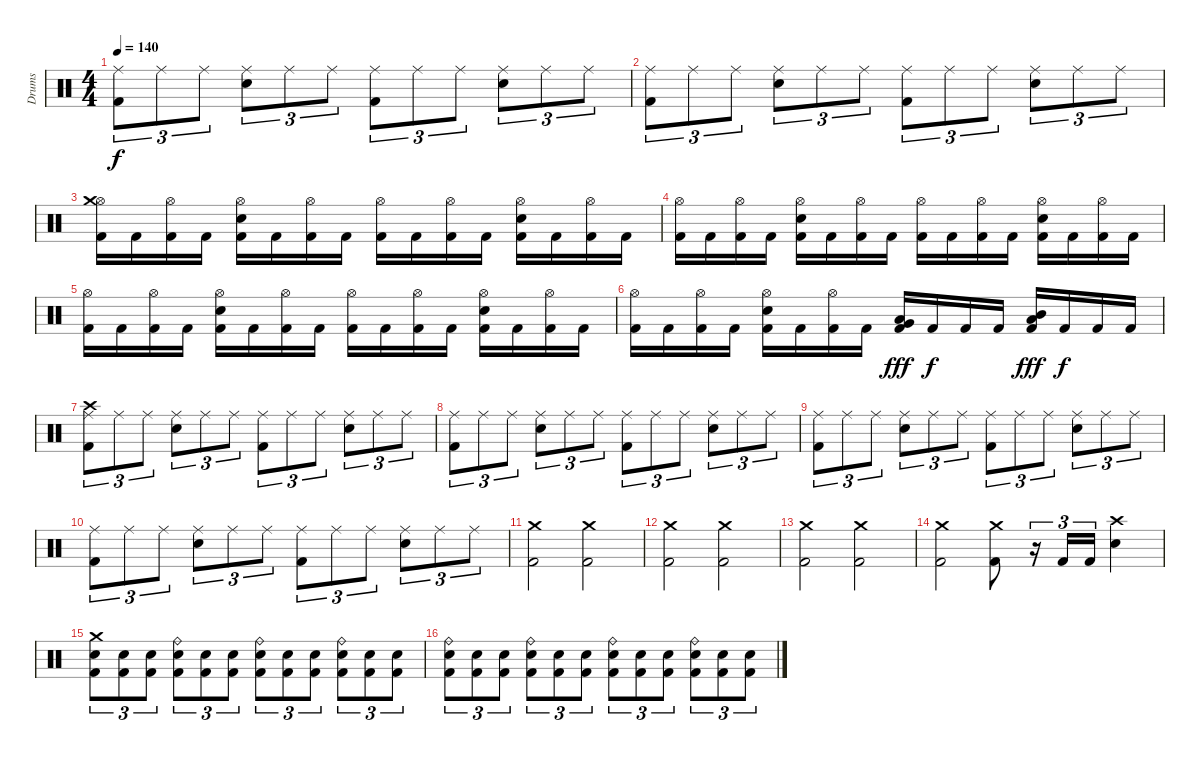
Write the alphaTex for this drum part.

\track ("Drums" "Drums") {instrument percussion}
\staff {score}
\articulation defaults
\ts (4 4)
\tempo 140
\clef neutral
\ks c
("Kick (hit) 2" "Ride (middle)").8{tu (3 2) dy f} "Ride (middle)".8{tu (3 2)} "Ride (middle)".8{tu (3 2)} ("Snare (hit) 2" "Ride (middle)").8{tu (3 2)} "Ride (middle)".8{tu (3 2)} "Ride (middle)".8{tu (3 2)} ("Kick (hit) 2" "Ride (middle)").8{tu (3 2)} "Ride (middle)".8{tu (3 2)} "Ride (middle)".8{tu (3 2)} ("Snare (hit) 2" "Ride (middle)").8{tu (3 2)} "Ride (middle)".8{tu (3 2)} "Ride (middle)".8{tu (3 2)} |
("Kick (hit) 2" "Ride (middle)").8{tu (3 2)} "Ride (middle)".8{tu (3 2)} "Ride (middle)".8{tu (3 2)} ("Snare (hit) 2" "Ride (middle)").8{tu (3 2)} "Ride (middle)".8{tu (3 2)} "Ride (middle)".8{tu (3 2)} ("Kick (hit) 2" "Ride (middle)").8{tu (3 2)} "Ride (middle)".8{tu (3 2)} "Ride (middle)".8{tu (3 2)} ("Snare (hit) 2" "Ride (middle)").8{tu (3 2)} "Ride (middle)".8{tu (3 2)} "Ride (middle)".8{tu (3 2)} |
("Kick (hit) 2" "Hi-Hat (open)" "Crash medium (hit)").16 "Kick (hit) 2".16 ("Kick (hit) 2" "Hi-Hat (open)").16 "Kick (hit) 2".16 ("Kick (hit) 2" "Snare (hit) 2" "Hi-Hat (open)").16 "Kick (hit) 2".16 ("Kick (hit) 2" "Hi-Hat (open)").16 "Kick (hit) 2".16 ("Kick (hit) 2" "Hi-Hat (open)").16 "Kick (hit) 2".16 ("Kick (hit) 2" "Hi-Hat (open)").16 "Kick (hit) 2".16 ("Kick (hit) 2" "Snare (hit) 2" "Hi-Hat (open)").16 "Kick (hit) 2".16 ("Kick (hit) 2" "Hi-Hat (open)").16 "Kick (hit) 2".16 |
("Kick (hit) 2" "Hi-Hat (open)").16 "Kick (hit) 2".16 ("Kick (hit) 2" "Hi-Hat (open)").16 "Kick (hit) 2".16 ("Kick (hit) 2" "Snare (hit) 2" "Hi-Hat (open)").16 "Kick (hit) 2".16 ("Kick (hit) 2" "Hi-Hat (open)").16 "Kick (hit) 2".16 ("Kick (hit) 2" "Hi-Hat (open)").16 "Kick (hit) 2".16 ("Kick (hit) 2" "Hi-Hat (open)").16 "Kick (hit) 2".16 ("Kick (hit) 2" "Snare (hit) 2" "Hi-Hat (open)").16 "Kick (hit) 2".16 ("Kick (hit) 2" "Hi-Hat (open)").16 "Kick (hit) 2".16 |
("Kick (hit) 2" "Hi-Hat (open)").16 "Kick (hit) 2".16 ("Kick (hit) 2" "Hi-Hat (open)").16 "Kick (hit) 2".16 ("Kick (hit) 2" "Snare (hit) 2" "Hi-Hat (open)").16 "Kick (hit) 2".16 ("Kick (hit) 2" "Hi-Hat (open)").16 "Kick (hit) 2".16 ("Kick (hit) 2" "Hi-Hat (open)").16 "Kick (hit) 2".16 ("Kick (hit) 2" "Hi-Hat (open)").16 "Kick (hit) 2".16 ("Kick (hit) 2" "Snare (hit) 2" "Hi-Hat (open)").16 "Kick (hit) 2".16 ("Kick (hit) 2" "Hi-Hat (open)").16 "Kick (hit) 2".16 |
("Kick (hit) 2" "Hi-Hat (open)").16 "Kick (hit) 2".16 ("Kick (hit) 2" "Hi-Hat (open)").16 "Kick (hit) 2".16 ("Kick (hit) 2" "Snare (hit) 2" "Hi-Hat (open)").16 "Kick (hit) 2".16 ("Kick (hit) 2" "Hi-Hat (open)").16 "Kick (hit) 2".16 ("Kick (hit) 2" "Low Tom (hit)" "Very Low Tom (hit)").16{dy fff} "Kick (hit) 2".16{dy f} "Kick (hit) 2".16 "Kick (hit) 2".16 ("Kick (hit) 2" "Mid Tom (hit)" "Low Tom (hit)").16{dy fff} "Kick (hit) 2".16{dy f} "Kick (hit) 2".16 "Kick (hit) 2".16 |
("Kick (hit) 2" "Ride (middle)" "Crash high (hit)").8{tu (3 2)} "Ride (middle)".8{tu (3 2)} "Ride (middle)".8{tu (3 2)} ("Snare (hit) 2" "Ride (middle)").8{tu (3 2)} "Ride (middle)".8{tu (3 2)} "Ride (middle)".8{tu (3 2)} ("Kick (hit) 2" "Ride (middle)").8{tu (3 2)} "Ride (middle)".8{tu (3 2)} "Ride (middle)".8{tu (3 2)} ("Snare (hit) 2" "Ride (middle)").8{tu (3 2)} "Ride (middle)".8{tu (3 2)} "Ride (middle)".8{tu (3 2)} |
("Kick (hit) 2" "Ride (middle)").8{tu (3 2)} "Ride (middle)".8{tu (3 2)} "Ride (middle)".8{tu (3 2)} ("Snare (hit) 2" "Ride (middle)").8{tu (3 2)} "Ride (middle)".8{tu (3 2)} "Ride (middle)".8{tu (3 2)} ("Kick (hit) 2" "Ride (middle)").8{tu (3 2)} "Ride (middle)".8{tu (3 2)} "Ride (middle)".8{tu (3 2)} ("Snare (hit) 2" "Ride (middle)").8{tu (3 2)} "Ride (middle)".8{tu (3 2)} "Ride (middle)".8{tu (3 2)} |
("Kick (hit) 2" "Ride (middle)").8{tu (3 2)} "Ride (middle)".8{tu (3 2)} "Ride (middle)".8{tu (3 2)} ("Snare (hit) 2" "Ride (middle)").8{tu (3 2)} "Ride (middle)".8{tu (3 2)} "Ride (middle)".8{tu (3 2)} ("Kick (hit) 2" "Ride (middle)").8{tu (3 2)} "Ride (middle)".8{tu (3 2)} "Ride (middle)".8{tu (3 2)} ("Snare (hit) 2" "Ride (middle)").8{tu (3 2)} "Ride (middle)".8{tu (3 2)} "Ride (middle)".8{tu (3 2)} |
("Kick (hit) 2" "Ride (middle)").8{tu (3 2)} "Ride (middle)".8{tu (3 2)} "Ride (middle)".8{tu (3 2)} ("Snare (hit) 2" "Ride (middle)").8{tu (3 2)} "Ride (middle)".8{tu (3 2)} "Ride (middle)".8{tu (3 2)} ("Kick (hit) 2" "Ride (middle)").8{tu (3 2)} "Ride (middle)".8{tu (3 2)} "Ride (middle)".8{tu (3 2)} ("Snare (hit) 2" "Ride (middle)").8{tu (3 2)} "Ride (middle)".8{tu (3 2)} "Ride (middle)".8{tu (3 2)} |
("Kick (hit) 2" "Crash medium (hit)").2 ("Kick (hit) 2" "Crash medium (hit)").2 |
("Kick (hit) 2" "Crash medium (hit)").2 ("Kick (hit) 2" "Crash medium (hit)").2 |
("Kick (hit) 2" "Crash medium (hit)").2 ("Kick (hit) 2" "Crash medium (hit)").2 |
("Kick (hit) 2" "Crash medium (hit)").2 ("Kick (hit) 2" "Crash medium (hit)").8 r.16{tu (3 2)} "Kick (hit) 2".16{tu (3 2)} "Kick (hit) 2".16{tu (3 2)} ("Snare (hit) 2" "Crash high (hit)").4 |
("Kick (hit) 2" "Snare (hit) 2" "Crash medium (hit)").8{tu (3 2)} ("Kick (hit) 2" "Snare (hit) 2").8{tu (3 2)} ("Kick (hit) 2" "Snare (hit) 2").8{tu (3 2)} ("Kick (hit) 2" "Snare (hit) 2" "Ride (bell)").8{tu (3 2)} ("Kick (hit) 2" "Snare (hit) 2").8{tu (3 2)} ("Kick (hit) 2" "Snare (hit) 2").8{tu (3 2)} ("Kick (hit) 2" "Snare (hit) 2" "Ride (bell)").8{tu (3 2)} ("Kick (hit) 2" "Snare (hit) 2").8{tu (3 2)} ("Kick (hit) 2" "Snare (hit) 2").8{tu (3 2)} ("Kick (hit) 2" "Snare (hit) 2" "Ride (bell)").8{tu (3 2)} ("Kick (hit) 2" "Snare (hit) 2").8{tu (3 2)} ("Kick (hit) 2" "Snare (hit) 2").8{tu (3 2)} |
("Kick (hit) 2" "Snare (hit) 2" "Ride (bell)").8{tu (3 2)} ("Kick (hit) 2" "Snare (hit) 2").8{tu (3 2)} ("Kick (hit) 2" "Snare (hit) 2").8{tu (3 2)} ("Kick (hit) 2" "Snare (hit) 2" "Ride (bell)").8{tu (3 2)} ("Kick (hit) 2" "Snare (hit) 2").8{tu (3 2)} ("Kick (hit) 2" "Snare (hit) 2").8{tu (3 2)} ("Kick (hit) 2" "Snare (hit) 2" "Ride (bell)").8{tu (3 2)} ("Kick (hit) 2" "Snare (hit) 2").8{tu (3 2)} ("Kick (hit) 2" "Snare (hit) 2").8{tu (3 2)} ("Kick (hit) 2" "Snare (hit) 2" "Ride (bell)").8{tu (3 2)} ("Kick (hit) 2" "Snare (hit) 2").8{tu (3 2)} ("Kick (hit) 2" "Snare (hit) 2").8{tu (3 2)}
